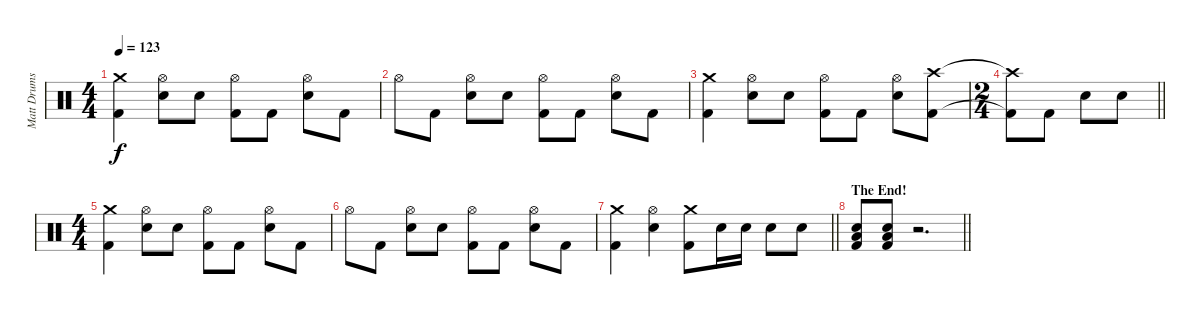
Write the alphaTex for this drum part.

\track ("Matt Drums" "Matt Drums") {instrument percussion}
\staff {score}
\articulation defaults
\ts (4 4)
\tempo 123
\clef neutral
\ks c
("Crash medium (hit)" "Kick (hit) 2").4{dy f} ("Hi-Hat (open)" "Snare (hit) 2").8 "Snare (hit) 2".8 ("Hi-Hat (open)" "Kick (hit) 2").8 "Kick (hit) 2".8 ("Hi-Hat (open)" "Snare (hit) 2").8 "Kick (hit) 2".8 |
"Hi-Hat (open)".8 "Kick (hit) 2".8 ("Hi-Hat (open)" "Snare (hit) 2").8 "Snare (hit) 2".8 ("Hi-Hat (open)" "Kick (hit) 2").8 "Kick (hit) 2".8 ("Hi-Hat (open)" "Snare (hit) 2").8 "Kick (hit) 2".8 |
("Crash medium (hit)" "Kick (hit) 2").4 ("Hi-Hat (open)" "Snare (hit) 2").8 "Snare (hit) 2".8 ("Hi-Hat (open)" "Kick (hit) 2").8 "Kick (hit) 2".8 ("Hi-Hat (open)" "Snare (hit) 2").8 ("Crash high (hit)" "Kick (hit) 2").8 |
\ts (2 4)
\barLineRight lightlight
("Crash high (hit)"{t} "Kick (hit) 2"{t}).8 "Kick (hit) 2".8 "Snare (hit) 2".8 "Snare (hit) 2".8 |
\ts (4 4)
("Crash medium (hit)" "Kick (hit) 2").4 ("Hi-Hat (open)" "Snare (hit) 2").8 "Snare (hit) 2".8 ("Hi-Hat (open)" "Kick (hit) 2").8 "Kick (hit) 2".8 ("Hi-Hat (open)" "Snare (hit) 2").8 "Kick (hit) 2".8 |
"Hi-Hat (open)".8 "Kick (hit) 2".8 ("Hi-Hat (open)" "Snare (hit) 2").8 "Snare (hit) 2".8 ("Hi-Hat (open)" "Kick (hit) 2").8 "Kick (hit) 2".8 ("Hi-Hat (open)" "Snare (hit) 2").8 "Kick (hit) 2".8 |
\barLineRight lightlight
("Crash medium (hit)" "Kick (hit) 2").4 ("Hi-Hat (open)" "Snare (hit) 2").4 ("Crash medium (hit)" "Kick (hit) 2").8 "Snare (hit) 2".16 "Snare (hit) 2".16 "Snare (hit) 2".8 "Snare (hit) 2".8 |
\section ("" "The End!")
\barLineRight lightlight
("Kick (hit) 2" "Low Floor Tom (hit)" "Snare (hit) 2").8 ("Kick (hit) 2" "Low Floor Tom (hit)" "Snare (hit) 2").8 r.2{d}
